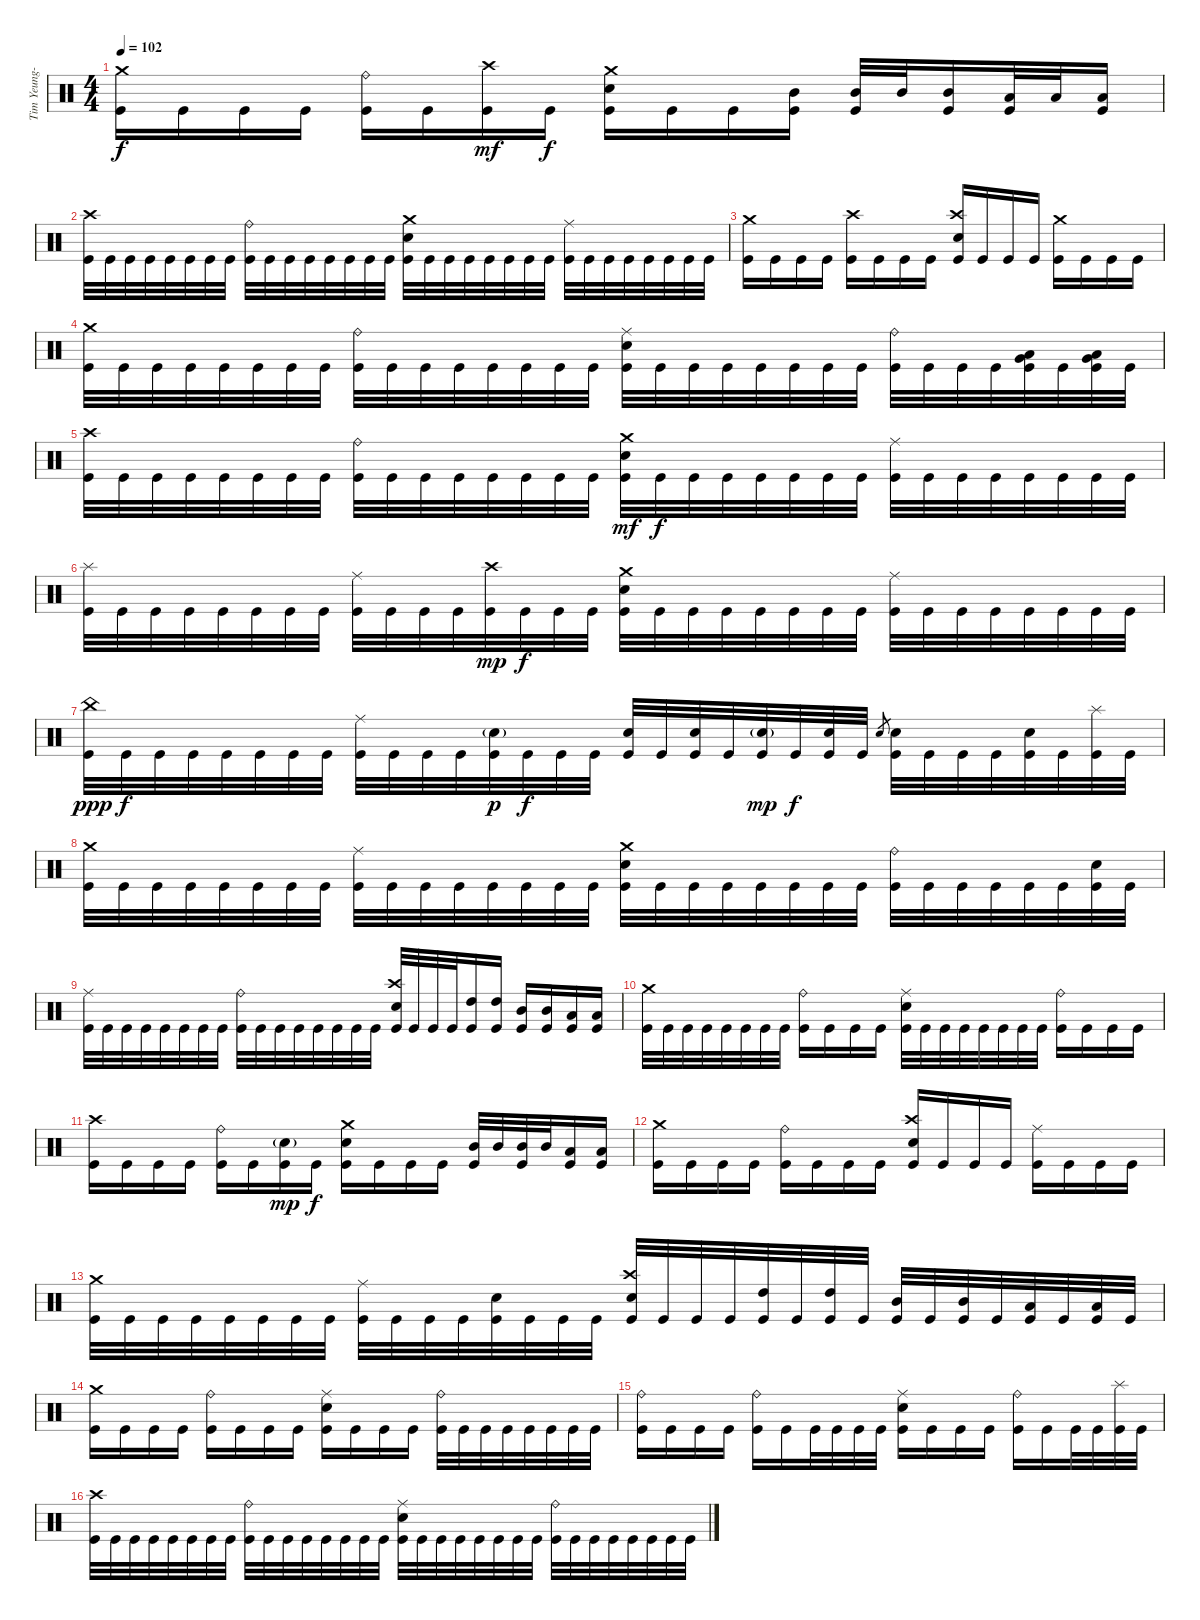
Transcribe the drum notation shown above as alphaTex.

\track ("Tim Yeung-Drums" "Tim Yeung-") {instrument percussion}
\staff {score}
\articulation defaults
\ts (4 4)
\tempo 102
\clef neutral
\ks c
("Crash medium (hit)" "Kick (hit)").16{dy f} "Kick (hit)".16 "Kick (hit)".16 "Kick (hit)".16 ("Ride (bell)" "Kick (hit)").16 "Kick (hit)".16 ("Crash high (hit)" "Kick (hit)").16{dy mf} "Kick (hit)".16{dy f} ("Crash medium (hit)" "Electric Snare (hit)" "Kick (hit)").16 "Kick (hit)".16 "Kick (hit)".16 ("Mid Tom (hit)" "Kick (hit)").16 ("Mid Tom (hit)" "Kick (hit)").32 "Mid Tom (hit)".32 ("Mid Tom (hit)" "Kick (hit)").16 ("Low Tom (hit)" "Kick (hit)").32 "Low Tom (hit)".32 ("Low Tom (hit)" "Kick (hit)").16 |
("Crash high (hit)" "Kick (hit)").32 "Kick (hit)".32 "Kick (hit)".32 "Kick (hit)".32 "Kick (hit)".32 "Kick (hit)".32 "Kick (hit)".32 "Kick (hit)".32 ("Ride (bell)" "Kick (hit)").32 "Kick (hit)".32 "Kick (hit)".32 "Kick (hit)".32 "Kick (hit)".32 "Kick (hit)".32 "Kick (hit)".32 "Kick (hit)".32 ("Crash medium (hit)" "Electric Snare (hit)" "Kick (hit)").32 "Kick (hit)".32 "Kick (hit)".32 "Kick (hit)".32 "Kick (hit)".32 "Kick (hit)".32 "Kick (hit)".32 "Kick (hit)".32 ("Ride (middle)" "Kick (hit)").32 "Kick (hit)".32 "Kick (hit)".32 "Kick (hit)".32 "Kick (hit)".32 "Kick (hit)".32 "Kick (hit)".32 "Kick (hit)".32 |
("Crash medium (hit)" "Kick (hit)").16 "Kick (hit)".16 "Kick (hit)".16 "Kick (hit)".16 ("Crash high (hit)" "Kick (hit)").16 "Kick (hit)".16 "Kick (hit)".16 "Kick (hit)".16 ("Crash high (hit)" "Electric Snare (hit)" "Kick (hit)").16 "Kick (hit)".16 "Kick (hit)".16 "Kick (hit)".16 ("Crash medium (hit)" "Kick (hit)").16 "Kick (hit)".16 "Kick (hit)".16 "Kick (hit)".16 |
("Crash medium (hit)" "Kick (hit)").32 "Kick (hit)".32 "Kick (hit)".32 "Kick (hit)".32 "Kick (hit)".32 "Kick (hit)".32 "Kick (hit)".32 "Kick (hit)".32 ("Ride (bell)" "Kick (hit)").32 "Kick (hit)".32 "Kick (hit)".32 "Kick (hit)".32 "Kick (hit)".32 "Kick (hit)".32 "Kick (hit)".32 "Kick (hit)".32 ("Ride (middle)" "Electric Snare (hit)" "Kick (hit)").32 "Kick (hit)".32 "Kick (hit)".32 "Kick (hit)".32 "Kick (hit)".32 "Kick (hit)".32 "Kick (hit)".32 "Kick (hit)".32 ("Ride (bell)" "Kick (hit)").32 "Kick (hit)".32 "Kick (hit)".32 "Kick (hit)".32 ("Low Tom (hit)" "Very Low Tom (hit)" "Kick (hit)").32 "Kick (hit)".32 ("Low Tom (hit)" "Very Low Tom (hit)" "Kick (hit)").32 "Kick (hit)".32 |
("Crash high (hit)" "Kick (hit)").32 "Kick (hit)".32 "Kick (hit)".32 "Kick (hit)".32 "Kick (hit)".32 "Kick (hit)".32 "Kick (hit)".32 "Kick (hit)".32 ("Ride (bell)" "Kick (hit)").32 "Kick (hit)".32 "Kick (hit)".32 "Kick (hit)".32 "Kick (hit)".32 "Kick (hit)".32 "Kick (hit)".32 "Kick (hit)".32 ("Crash medium (hit)" "Electric Snare (hit)" "Kick (hit)").32{dy mf} "Kick (hit)".32{dy f} "Kick (hit)".32 "Kick (hit)".32 "Kick (hit)".32 "Kick (hit)".32 "Kick (hit)".32 "Kick (hit)".32 ("Ride (middle)" "Kick (hit)").32 "Kick (hit)".32 "Kick (hit)".32 "Kick (hit)".32 "Kick (hit)".32 "Kick (hit)".32 "Kick (hit)".32 "Kick (hit)".32 |
("Splash (hit)" "Kick (hit)").32 "Kick (hit)".32 "Kick (hit)".32 "Kick (hit)".32 "Kick (hit)".32 "Kick (hit)".32 "Kick (hit)".32 "Kick (hit)".32 ("Ride (middle)" "Kick (hit)").32 "Kick (hit)".32 "Kick (hit)".32 "Kick (hit)".32 ("Crash high (hit)" "Kick (hit)").32{dy mp} "Kick (hit)".32{dy f} "Kick (hit)".32 "Kick (hit)".32 ("Crash medium (hit)" "Electric Snare (hit)" "Kick (hit)").32 "Kick (hit)".32 "Kick (hit)".32 "Kick (hit)".32 "Kick (hit)".32 "Kick (hit)".32 "Kick (hit)".32 "Kick (hit)".32 ("Ride (middle)" "Kick (hit)").32 "Kick (hit)".32 "Kick (hit)".32 "Kick (hit)".32 "Kick (hit)".32 "Kick (hit)".32 "Kick (hit)".32 "Kick (hit)".32 |
("China (hit)" "Kick (hit)").32{dy ppp} "Kick (hit)".32{dy f} "Kick (hit)".32 "Kick (hit)".32 "Kick (hit)".32 "Kick (hit)".32 "Kick (hit)".32 "Kick (hit)".32 ("Ride (middle)" "Kick (hit)").32 "Kick (hit)".32 "Kick (hit)".32 "Kick (hit)".32 ("Electric Snare (hit)"{g} "Kick (hit)").32{dy p} "Kick (hit)".32{dy f} "Kick (hit)".32 "Kick (hit)".32 ("Electric Snare (hit)" "Kick (hit)").32 "Kick (hit)".32 ("Electric Snare (hit)" "Kick (hit)").32 "Kick (hit)".32 ("Electric Snare (hit)"{g} "Kick (hit)").32{dy mp} "Kick (hit)".32{dy f} ("Electric Snare (hit)" "Kick (hit)").32 "Kick (hit)".32 "Electric Snare (hit)".8{gr} ("Electric Snare (hit)" "Kick (hit)").32 "Kick (hit)".32 "Kick (hit)".32 "Kick (hit)".32 ("Electric Snare (hit)" "Kick (hit)").32 "Kick (hit)".32 ("Splash (hit)" "Kick (hit)").32 "Kick (hit)".32 |
("Crash medium (hit)" "Kick (hit)").32 "Kick (hit)".32 "Kick (hit)".32 "Kick (hit)".32 "Kick (hit)".32 "Kick (hit)".32 "Kick (hit)".32 "Kick (hit)".32 ("Ride (middle)" "Kick (hit)").32 "Kick (hit)".32 "Kick (hit)".32 "Kick (hit)".32 "Kick (hit)".32 "Kick (hit)".32 "Kick (hit)".32 "Kick (hit)".32 ("Crash medium (hit)" "Electric Snare (hit)" "Kick (hit)").32 "Kick (hit)".32 "Kick (hit)".32 "Kick (hit)".32 "Kick (hit)".32 "Kick (hit)".32 "Kick (hit)".32 "Kick (hit)".32 ("Ride (bell)" "Kick (hit)").32 "Kick (hit)".32 "Kick (hit)".32 "Kick (hit)".32 "Kick (hit)".32 "Kick (hit)".32 ("Electric Snare (hit)" "Kick (hit)").32 "Kick (hit)".32 |
("Ride (middle)" "Kick (hit)").32 "Kick (hit)".32 "Kick (hit)".32 "Kick (hit)".32 "Kick (hit)".32 "Kick (hit)".32 "Kick (hit)".32 "Kick (hit)".32 ("Ride (bell)" "Kick (hit)").32 "Kick (hit)".32 "Kick (hit)".32 "Kick (hit)".32 "Kick (hit)".32 "Kick (hit)".32 "Kick (hit)".32 "Kick (hit)".32 ("Crash high (hit)" "Electric Snare (hit)" "Kick (hit)").32 "Kick (hit)".32 "Kick (hit)".32 "Kick (hit)".32 ("High Tom (hit)" "Kick (hit)").16 ("High Tom (hit)" "Kick (hit)").16 ("Mid Tom (hit)" "Kick (hit)").16 ("Mid Tom (hit)" "Kick (hit)").16 ("Low Tom (hit)" "Kick (hit)").16 ("Low Tom (hit)" "Kick (hit)").16 |
("Crash medium (hit)" "Kick (hit)").32 "Kick (hit)".32 "Kick (hit)".32 "Kick (hit)".32 "Kick (hit)".32 "Kick (hit)".32 "Kick (hit)".32 "Kick (hit)".32 ("Ride (bell)" "Kick (hit)").16 "Kick (hit)".16 "Kick (hit)".16 "Kick (hit)".16 ("Ride (middle)" "Electric Snare (hit)" "Kick (hit)").32 "Kick (hit)".32 "Kick (hit)".32 "Kick (hit)".32 "Kick (hit)".32 "Kick (hit)".32 "Kick (hit)".32 "Kick (hit)".32 ("Ride (bell)" "Kick (hit)").16 "Kick (hit)".16 "Kick (hit)".16 "Kick (hit)".16 |
("Crash high (hit)" "Kick (hit)").16 "Kick (hit)".16 "Kick (hit)".16 "Kick (hit)".16 ("Ride (bell)" "Kick (hit)").16 "Kick (hit)".16 ("Electric Snare (hit)"{g} "Kick (hit)").16{dy mp} "Kick (hit)".16{dy f} ("Crash medium (hit)" "Electric Snare (hit)" "Kick (hit)").16 "Kick (hit)".16 "Kick (hit)".16 "Kick (hit)".16 ("Mid Tom (hit)" "Kick (hit)").32 "Mid Tom (hit)".32 ("Mid Tom (hit)" "Kick (hit)").32 "Mid Tom (hit)".32 ("Low Tom (hit)" "Kick (hit)").16 ("Low Tom (hit)" "Kick (hit)").16 |
("Crash medium (hit)" "Kick (hit)").16 "Kick (hit)".16 "Kick (hit)".16 "Kick (hit)".16 ("Ride (bell)" "Kick (hit)").16 "Kick (hit)".16 "Kick (hit)".16 "Kick (hit)".16 ("Crash high (hit)" "Electric Snare (hit)" "Kick (hit)").16 "Kick (hit)".16 "Kick (hit)".16 "Kick (hit)".16 ("Ride (middle)" "Kick (hit)").16 "Kick (hit)".16 "Kick (hit)".16 "Kick (hit)".16 |
("Crash medium (hit)" "Kick (hit)").32 "Kick (hit)".32 "Kick (hit)".32 "Kick (hit)".32 "Kick (hit)".32 "Kick (hit)".32 "Kick (hit)".32 "Kick (hit)".32 ("Ride (middle)" "Kick (hit)").32 "Kick (hit)".32 "Kick (hit)".32 "Kick (hit)".32 ("Electric Snare (hit)" "Kick (hit)").32 "Kick (hit)".32 "Kick (hit)".32 "Kick (hit)".32 ("Crash high (hit)" "Electric Snare (hit)" "Kick (hit)").32 "Kick (hit)".32 "Kick (hit)".32 "Kick (hit)".32 ("High Tom (hit)" "Kick (hit)").32 "Kick (hit)".32 ("High Tom (hit)" "Kick (hit)").32 "Kick (hit)".32 ("Mid Tom (hit)" "Kick (hit)").32 "Kick (hit)".32 ("Mid Tom (hit)" "Kick (hit)").32 "Kick (hit)".32 ("Low Tom (hit)" "Kick (hit)").32 "Kick (hit)".32 ("Low Tom (hit)" "Kick (hit)").32 "Kick (hit)".32 |
("Crash medium (hit)" "Kick (hit)").16 "Kick (hit)".16 "Kick (hit)".16 "Kick (hit)".16 ("Ride (bell)" "Kick (hit)").16 "Kick (hit)".16 "Kick (hit)".16 "Kick (hit)".16 ("Ride (middle)" "Electric Snare (hit)" "Kick (hit)").16 "Kick (hit)".16 "Kick (hit)".16 "Kick (hit)".16 ("Ride (bell)" "Kick (hit)").32 "Kick (hit)".32 "Kick (hit)".32 "Kick (hit)".32 "Kick (hit)".32 "Kick (hit)".32 "Kick (hit)".32 "Kick (hit)".32 |
("Ride (bell)" "Kick (hit)").16 "Kick (hit)".16 "Kick (hit)".16 "Kick (hit)".16 ("Ride (bell)" "Kick (hit)").16 "Kick (hit)".16 "Kick (hit)".32 "Kick (hit)".32 "Kick (hit)".32 "Kick (hit)".32 ("Ride (middle)" "Electric Snare (hit)" "Kick (hit)").16 "Kick (hit)".16 "Kick (hit)".16 "Kick (hit)".16 ("Ride (bell)" "Kick (hit)").16 "Kick (hit)".16 "Kick (hit)".32 "Kick (hit)".32 ("Splash (hit)" "Kick (hit)").32 "Kick (hit)".32 |
("Crash high (hit)" "Kick (hit)").32 "Kick (hit)".32 "Kick (hit)".32 "Kick (hit)".32 "Kick (hit)".32 "Kick (hit)".32 "Kick (hit)".32 "Kick (hit)".32 ("Ride (bell)" "Kick (hit)").32 "Kick (hit)".32 "Kick (hit)".32 "Kick (hit)".32 "Kick (hit)".32 "Kick (hit)".32 "Kick (hit)".32 "Kick (hit)".32 ("Ride (middle)" "Electric Snare (hit)" "Kick (hit)").32 "Kick (hit)".32 "Kick (hit)".32 "Kick (hit)".32 "Kick (hit)".32 "Kick (hit)".32 "Kick (hit)".32 "Kick (hit)".32 ("Ride (bell)" "Kick (hit)").32 "Kick (hit)".32 "Kick (hit)".32 "Kick (hit)".32 "Kick (hit)".32 "Kick (hit)".32 "Kick (hit)".32 "Kick (hit)".32
